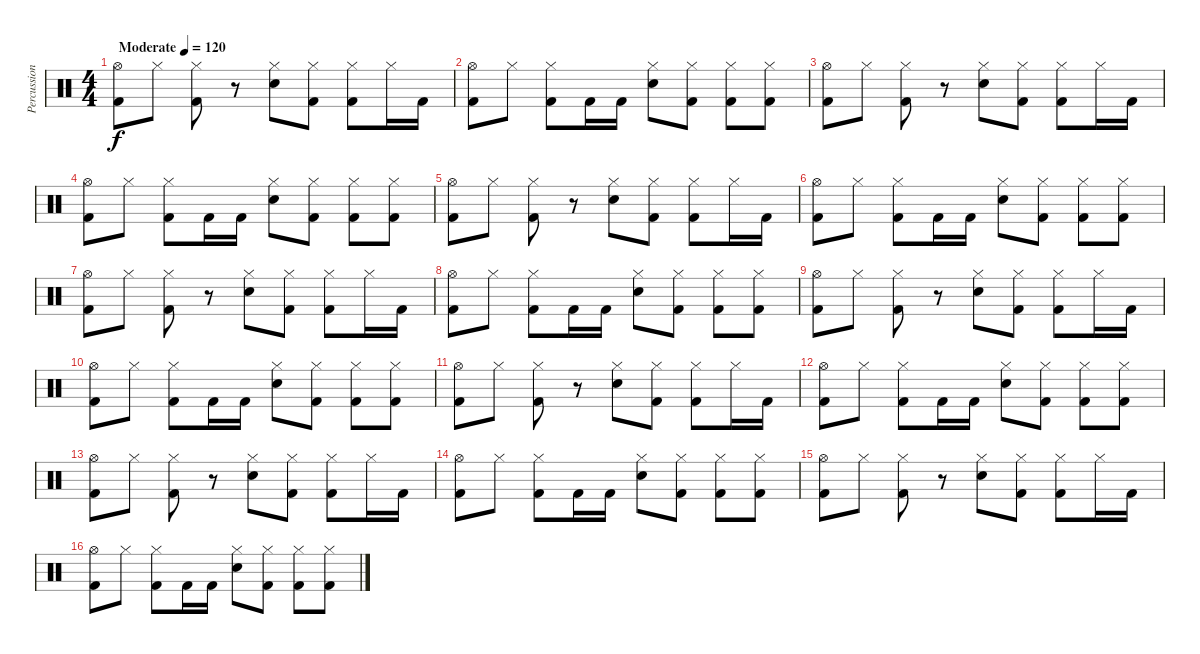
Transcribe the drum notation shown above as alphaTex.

\track ("Percussions" "Percussion") {instrument percussion}
\staff {score}
\articulation defaults
\ts (4 4)
\tempo (120 "Moderate")
\clef neutral
\ks c
("Hi-Hat (open)" "Kick (hit) 2").8{dy f} "Hi-Hat (closed)".8 ("Hi-Hat (closed)" "Kick (hit) 2").8 r.8 ("Hi-Hat (closed)" "Snare (hit) 2").8 ("Hi-Hat (closed)" "Kick (hit) 2").8 ("Hi-Hat (closed)" "Kick (hit) 2").8 "Hi-Hat (closed)".16 "Kick (hit) 2".16 |
("Hi-Hat (open)" "Kick (hit) 2").8 "Hi-Hat (closed)".8 ("Hi-Hat (closed)" "Kick (hit) 2").8 "Kick (hit) 2".16 "Kick (hit) 2".16 ("Hi-Hat (closed)" "Snare (hit) 2").8 ("Hi-Hat (closed)" "Kick (hit) 2").8 ("Hi-Hat (closed)" "Kick (hit) 2").8 ("Hi-Hat (closed)" "Kick (hit) 2").8 |
("Hi-Hat (open)" "Kick (hit) 2").8 "Hi-Hat (closed)".8 ("Hi-Hat (closed)" "Kick (hit) 2").8 r.8 ("Hi-Hat (closed)" "Snare (hit) 2").8 ("Hi-Hat (closed)" "Kick (hit) 2").8 ("Hi-Hat (closed)" "Kick (hit) 2").8 "Hi-Hat (closed)".16 "Kick (hit) 2".16 |
("Hi-Hat (open)" "Kick (hit) 2").8 "Hi-Hat (closed)".8 ("Hi-Hat (closed)" "Kick (hit) 2").8 "Kick (hit) 2".16 "Kick (hit) 2".16 ("Hi-Hat (closed)" "Snare (hit) 2").8 ("Hi-Hat (closed)" "Kick (hit) 2").8 ("Hi-Hat (closed)" "Kick (hit) 2").8 ("Hi-Hat (closed)" "Kick (hit) 2").8 |
("Hi-Hat (open)" "Kick (hit) 2").8 "Hi-Hat (closed)".8 ("Hi-Hat (closed)" "Kick (hit) 2").8 r.8 ("Hi-Hat (closed)" "Snare (hit) 2").8 ("Hi-Hat (closed)" "Kick (hit) 2").8 ("Hi-Hat (closed)" "Kick (hit) 2").8 "Hi-Hat (closed)".16 "Kick (hit) 2".16 |
("Hi-Hat (open)" "Kick (hit) 2").8 "Hi-Hat (closed)".8 ("Hi-Hat (closed)" "Kick (hit) 2").8 "Kick (hit) 2".16 "Kick (hit) 2".16 ("Hi-Hat (closed)" "Snare (hit) 2").8 ("Hi-Hat (closed)" "Kick (hit) 2").8 ("Hi-Hat (closed)" "Kick (hit) 2").8 ("Hi-Hat (closed)" "Kick (hit) 2").8 |
("Hi-Hat (open)" "Kick (hit) 2").8 "Hi-Hat (closed)".8 ("Hi-Hat (closed)" "Kick (hit) 2").8 r.8 ("Hi-Hat (closed)" "Snare (hit) 2").8 ("Hi-Hat (closed)" "Kick (hit) 2").8 ("Hi-Hat (closed)" "Kick (hit) 2").8 "Hi-Hat (closed)".16 "Kick (hit) 2".16 |
("Hi-Hat (open)" "Kick (hit) 2").8 "Hi-Hat (closed)".8 ("Hi-Hat (closed)" "Kick (hit) 2").8 "Kick (hit) 2".16 "Kick (hit) 2".16 ("Hi-Hat (closed)" "Snare (hit) 2").8 ("Hi-Hat (closed)" "Kick (hit) 2").8 ("Hi-Hat (closed)" "Kick (hit) 2").8 ("Hi-Hat (closed)" "Kick (hit) 2").8 |
("Hi-Hat (open)" "Kick (hit) 2").8 "Hi-Hat (closed)".8 ("Hi-Hat (closed)" "Kick (hit) 2").8 r.8 ("Hi-Hat (closed)" "Snare (hit) 2").8 ("Hi-Hat (closed)" "Kick (hit) 2").8 ("Hi-Hat (closed)" "Kick (hit) 2").8 "Hi-Hat (closed)".16 "Kick (hit) 2".16 |
("Hi-Hat (open)" "Kick (hit) 2").8 "Hi-Hat (closed)".8 ("Hi-Hat (closed)" "Kick (hit) 2").8 "Kick (hit) 2".16 "Kick (hit) 2".16 ("Hi-Hat (closed)" "Snare (hit) 2").8 ("Hi-Hat (closed)" "Kick (hit) 2").8 ("Hi-Hat (closed)" "Kick (hit) 2").8 ("Hi-Hat (closed)" "Kick (hit) 2").8 |
("Hi-Hat (open)" "Kick (hit) 2").8 "Hi-Hat (closed)".8 ("Hi-Hat (closed)" "Kick (hit) 2").8 r.8 ("Hi-Hat (closed)" "Snare (hit) 2").8 ("Hi-Hat (closed)" "Kick (hit) 2").8 ("Hi-Hat (closed)" "Kick (hit) 2").8 "Hi-Hat (closed)".16 "Kick (hit) 2".16 |
("Hi-Hat (open)" "Kick (hit) 2").8 "Hi-Hat (closed)".8 ("Hi-Hat (closed)" "Kick (hit) 2").8 "Kick (hit) 2".16 "Kick (hit) 2".16 ("Hi-Hat (closed)" "Snare (hit) 2").8 ("Hi-Hat (closed)" "Kick (hit) 2").8 ("Hi-Hat (closed)" "Kick (hit) 2").8 ("Hi-Hat (closed)" "Kick (hit) 2").8 |
("Hi-Hat (open)" "Kick (hit) 2").8 "Hi-Hat (closed)".8 ("Hi-Hat (closed)" "Kick (hit) 2").8 r.8 ("Hi-Hat (closed)" "Snare (hit) 2").8 ("Hi-Hat (closed)" "Kick (hit) 2").8 ("Hi-Hat (closed)" "Kick (hit) 2").8 "Hi-Hat (closed)".16 "Kick (hit) 2".16 |
("Hi-Hat (open)" "Kick (hit) 2").8 "Hi-Hat (closed)".8 ("Hi-Hat (closed)" "Kick (hit) 2").8 "Kick (hit) 2".16 "Kick (hit) 2".16 ("Hi-Hat (closed)" "Snare (hit) 2").8 ("Hi-Hat (closed)" "Kick (hit) 2").8 ("Hi-Hat (closed)" "Kick (hit) 2").8 ("Hi-Hat (closed)" "Kick (hit) 2").8 |
("Hi-Hat (open)" "Kick (hit) 2").8 "Hi-Hat (closed)".8 ("Hi-Hat (closed)" "Kick (hit) 2").8 r.8 ("Hi-Hat (closed)" "Snare (hit) 2").8 ("Hi-Hat (closed)" "Kick (hit) 2").8 ("Hi-Hat (closed)" "Kick (hit) 2").8 "Hi-Hat (closed)".16 "Kick (hit) 2".16 |
("Hi-Hat (open)" "Kick (hit) 2").8 "Hi-Hat (closed)".8 ("Hi-Hat (closed)" "Kick (hit) 2").8 "Kick (hit) 2".16 "Kick (hit) 2".16 ("Hi-Hat (closed)" "Snare (hit) 2").8 ("Hi-Hat (closed)" "Kick (hit) 2").8 ("Hi-Hat (closed)" "Kick (hit) 2").8 ("Hi-Hat (closed)" "Kick (hit) 2").8
